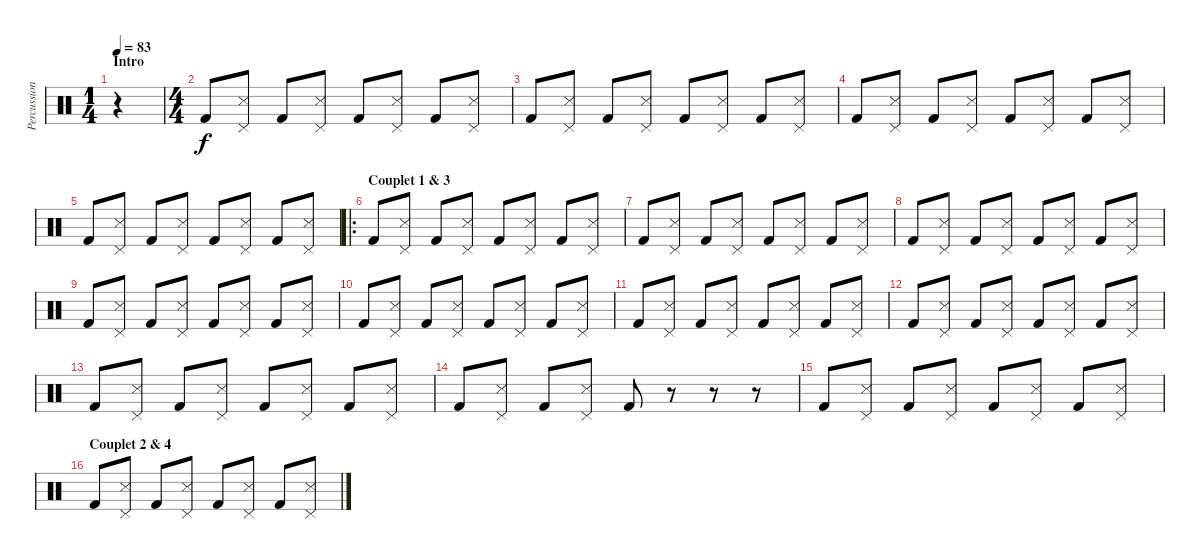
\track ("Percussions" "Percussion") {instrument percussion}
\staff {score}
\articulation defaults
\ts (1 4)
\section ("" "Intro")
\tempo 83
\clef neutral
\ks c
r.4{dy f} |
\ts (4 4)
"Kick (hit) 2".8 ("Pedal Hi-Hat (hit)" "Snare (side stick) 3").8 "Kick (hit) 2".8 ("Pedal Hi-Hat (hit)" "Snare (side stick) 3").8 "Kick (hit) 2".8 ("Pedal Hi-Hat (hit)" "Snare (side stick) 3").8 "Kick (hit) 2".8 ("Pedal Hi-Hat (hit)" "Snare (side stick) 3").8 |
"Kick (hit) 2".8 ("Pedal Hi-Hat (hit)" "Snare (side stick) 3").8 "Kick (hit) 2".8 ("Pedal Hi-Hat (hit)" "Snare (side stick) 3").8 "Kick (hit) 2".8 ("Pedal Hi-Hat (hit)" "Snare (side stick) 3").8 "Kick (hit) 2".8 ("Pedal Hi-Hat (hit)" "Snare (side stick) 3").8 |
"Kick (hit) 2".8 ("Pedal Hi-Hat (hit)" "Snare (side stick) 3").8 "Kick (hit) 2".8 ("Pedal Hi-Hat (hit)" "Snare (side stick) 3").8 "Kick (hit) 2".8 ("Pedal Hi-Hat (hit)" "Snare (side stick) 3").8 "Kick (hit) 2".8 ("Pedal Hi-Hat (hit)" "Snare (side stick) 3").8 |
"Kick (hit) 2".8 ("Pedal Hi-Hat (hit)" "Snare (side stick) 3").8 "Kick (hit) 2".8 ("Pedal Hi-Hat (hit)" "Snare (side stick) 3").8 "Kick (hit) 2".8 ("Pedal Hi-Hat (hit)" "Snare (side stick) 3").8 "Kick (hit) 2".8 ("Pedal Hi-Hat (hit)" "Snare (side stick) 3").8 |
\ro
\section ("" "Couplet 1 & 3")
"Kick (hit) 2".8 ("Pedal Hi-Hat (hit)" "Snare (side stick) 3").8 "Kick (hit) 2".8 ("Pedal Hi-Hat (hit)" "Snare (side stick) 3").8 "Kick (hit) 2".8 ("Pedal Hi-Hat (hit)" "Snare (side stick) 3").8 "Kick (hit) 2".8 ("Pedal Hi-Hat (hit)" "Snare (side stick) 3").8 |
"Kick (hit) 2".8 ("Pedal Hi-Hat (hit)" "Snare (side stick) 3").8 "Kick (hit) 2".8 ("Pedal Hi-Hat (hit)" "Snare (side stick) 3").8 "Kick (hit) 2".8 ("Pedal Hi-Hat (hit)" "Snare (side stick) 3").8 "Kick (hit) 2".8 ("Pedal Hi-Hat (hit)" "Snare (side stick) 3").8 |
"Kick (hit) 2".8 ("Pedal Hi-Hat (hit)" "Snare (side stick) 3").8 "Kick (hit) 2".8 ("Pedal Hi-Hat (hit)" "Snare (side stick) 3").8 "Kick (hit) 2".8 ("Pedal Hi-Hat (hit)" "Snare (side stick) 3").8 "Kick (hit) 2".8 ("Pedal Hi-Hat (hit)" "Snare (side stick) 3").8 |
"Kick (hit) 2".8 ("Pedal Hi-Hat (hit)" "Snare (side stick) 3").8 "Kick (hit) 2".8 ("Pedal Hi-Hat (hit)" "Snare (side stick) 3").8 "Kick (hit) 2".8 ("Pedal Hi-Hat (hit)" "Snare (side stick) 3").8 "Kick (hit) 2".8 ("Pedal Hi-Hat (hit)" "Snare (side stick) 3").8 |
"Kick (hit) 2".8 ("Pedal Hi-Hat (hit)" "Snare (side stick) 3").8 "Kick (hit) 2".8 ("Pedal Hi-Hat (hit)" "Snare (side stick) 3").8 "Kick (hit) 2".8 ("Pedal Hi-Hat (hit)" "Snare (side stick) 3").8 "Kick (hit) 2".8 ("Pedal Hi-Hat (hit)" "Snare (side stick) 3").8 |
"Kick (hit) 2".8 ("Pedal Hi-Hat (hit)" "Snare (side stick) 3").8 "Kick (hit) 2".8 ("Pedal Hi-Hat (hit)" "Snare (side stick) 3").8 "Kick (hit) 2".8 ("Pedal Hi-Hat (hit)" "Snare (side stick) 3").8 "Kick (hit) 2".8 ("Pedal Hi-Hat (hit)" "Snare (side stick) 3").8 |
"Kick (hit) 2".8 ("Pedal Hi-Hat (hit)" "Snare (side stick) 3").8 "Kick (hit) 2".8 ("Pedal Hi-Hat (hit)" "Snare (side stick) 3").8 "Kick (hit) 2".8 ("Pedal Hi-Hat (hit)" "Snare (side stick) 3").8 "Kick (hit) 2".8 ("Pedal Hi-Hat (hit)" "Snare (side stick) 3").8 |
"Kick (hit) 2".8 ("Pedal Hi-Hat (hit)" "Snare (side stick) 3").8 "Kick (hit) 2".8 ("Pedal Hi-Hat (hit)" "Snare (side stick) 3").8 "Kick (hit) 2".8 ("Pedal Hi-Hat (hit)" "Snare (side stick) 3").8 "Kick (hit) 2".8 ("Pedal Hi-Hat (hit)" "Snare (side stick) 3").8 |
"Kick (hit) 2".8 ("Pedal Hi-Hat (hit)" "Snare (side stick) 3").8 "Kick (hit) 2".8 ("Pedal Hi-Hat (hit)" "Snare (side stick) 3").8 "Kick (hit) 2".8 r.8 r.8 r.8 |
"Kick (hit) 2".8 ("Pedal Hi-Hat (hit)" "Snare (side stick) 3").8 "Kick (hit) 2".8 ("Pedal Hi-Hat (hit)" "Snare (side stick) 3").8 "Kick (hit) 2".8 ("Pedal Hi-Hat (hit)" "Snare (side stick) 3").8 "Kick (hit) 2".8 ("Pedal Hi-Hat (hit)" "Snare (side stick) 3").8 |
\section ("" "Couplet 2 & 4")
"Kick (hit) 2".8 ("Pedal Hi-Hat (hit)" "Snare (side stick) 3").8 "Kick (hit) 2".8 ("Pedal Hi-Hat (hit)" "Snare (side stick) 3").8 "Kick (hit) 2".8 ("Pedal Hi-Hat (hit)" "Snare (side stick) 3").8 "Kick (hit) 2".8 ("Pedal Hi-Hat (hit)" "Snare (side stick) 3").8
